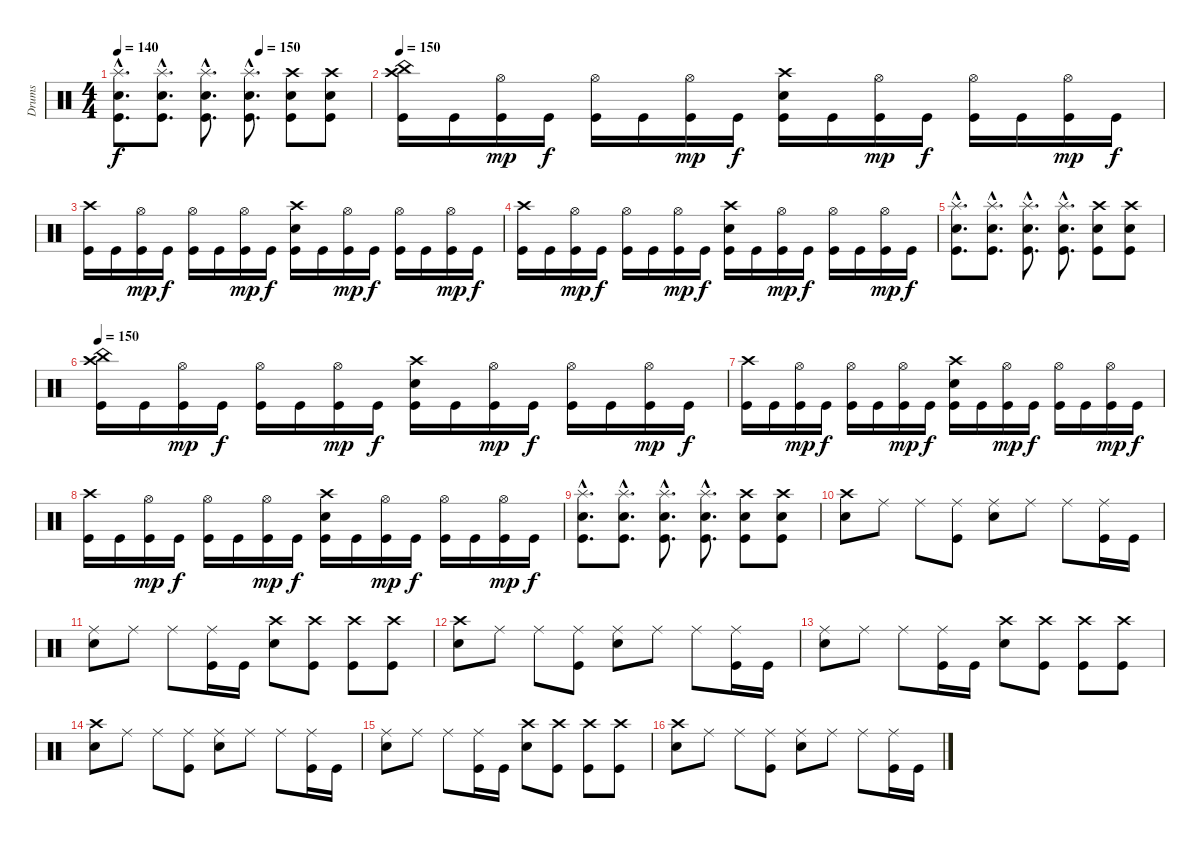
\track ("Drums" "Drums") {instrument percussion}
\staff {score}
\articulation defaults
\ts (4 4)
\tempo 140
\tempo (150 0.5625)
\clef neutral
\ks c
("Splash (hit)"{hac} "Electric Snare (hit)"{hac} "Kick (hit)"{hac}).8{d dy f} ("Splash (hit)"{hac} "Electric Snare (hit)"{hac} "Kick (hit)"{hac}).8{d} ("Splash (hit)"{hac} "Electric Snare (hit)"{hac} "Kick (hit)"{hac}).8{d} ("Splash (hit)"{hac} "Electric Snare (hit)"{hac} "Kick (hit)"{hac}).8{d} ("Crash high (hit)" "Electric Snare (hit)" "Kick (hit)").8 ("Crash high (hit)" "Electric Snare (hit)" "Kick (hit)").8 |
\tempo 150
("Crash high (hit)" "China (hit)" "Kick (hit)").16 "Kick (hit)".16 ("Hi-Hat (open)" "Kick (hit)").16{dy mp} "Kick (hit)".16{dy f} ("Hi-Hat (open)" "Kick (hit)").16 "Kick (hit)".16 ("Hi-Hat (open)" "Kick (hit)").16{dy mp} "Kick (hit)".16{dy f} ("Crash high (hit)" "Electric Snare (hit)" "Kick (hit)").16 "Kick (hit)".16 ("Hi-Hat (open)" "Kick (hit)").16{dy mp} "Kick (hit)".16{dy f} ("Hi-Hat (open)" "Kick (hit)").16 "Kick (hit)".16 ("Hi-Hat (open)" "Kick (hit)").16{dy mp} "Kick (hit)".16{dy f} |
("Crash high (hit)" "Kick (hit)").16 "Kick (hit)".16 ("Hi-Hat (open)" "Kick (hit)").16{dy mp} "Kick (hit)".16{dy f} ("Hi-Hat (open)" "Kick (hit)").16 "Kick (hit)".16 ("Hi-Hat (open)" "Kick (hit)").16{dy mp} "Kick (hit)".16{dy f} ("Crash high (hit)" "Electric Snare (hit)" "Kick (hit)").16 "Kick (hit)".16 ("Hi-Hat (open)" "Kick (hit)").16{dy mp} "Kick (hit)".16{dy f} ("Hi-Hat (open)" "Kick (hit)").16 "Kick (hit)".16 ("Hi-Hat (open)" "Kick (hit)").16{dy mp} "Kick (hit)".16{dy f} |
("Crash high (hit)" "Kick (hit)").16 "Kick (hit)".16 ("Hi-Hat (open)" "Kick (hit)").16{dy mp} "Kick (hit)".16{dy f} ("Hi-Hat (open)" "Kick (hit)").16 "Kick (hit)".16 ("Hi-Hat (open)" "Kick (hit)").16{dy mp} "Kick (hit)".16{dy f} ("Crash high (hit)" "Electric Snare (hit)" "Kick (hit)").16 "Kick (hit)".16 ("Hi-Hat (open)" "Kick (hit)").16{dy mp} "Kick (hit)".16{dy f} ("Hi-Hat (open)" "Kick (hit)").16 "Kick (hit)".16 ("Hi-Hat (open)" "Kick (hit)").16{dy mp} "Kick (hit)".16{dy f} |
("Splash (hit)"{hac} "Electric Snare (hit)"{hac} "Kick (hit)"{hac}).8{d} ("Splash (hit)"{hac} "Electric Snare (hit)"{hac} "Kick (hit)"{hac}).8{d} ("Splash (hit)"{hac} "Electric Snare (hit)"{hac} "Kick (hit)"{hac}).8{d} ("Splash (hit)"{hac} "Electric Snare (hit)"{hac} "Kick (hit)"{hac}).8{d} ("Crash high (hit)" "Electric Snare (hit)" "Kick (hit)").8 ("Crash high (hit)" "Electric Snare (hit)" "Kick (hit)").8 |
\tempo 150
("Crash high (hit)" "China (hit)" "Kick (hit)").16 "Kick (hit)".16 ("Hi-Hat (open)" "Kick (hit)").16{dy mp} "Kick (hit)".16{dy f} ("Hi-Hat (open)" "Kick (hit)").16 "Kick (hit)".16 ("Hi-Hat (open)" "Kick (hit)").16{dy mp} "Kick (hit)".16{dy f} ("Crash high (hit)" "Electric Snare (hit)" "Kick (hit)").16 "Kick (hit)".16 ("Hi-Hat (open)" "Kick (hit)").16{dy mp} "Kick (hit)".16{dy f} ("Hi-Hat (open)" "Kick (hit)").16 "Kick (hit)".16 ("Hi-Hat (open)" "Kick (hit)").16{dy mp} "Kick (hit)".16{dy f} |
("Crash high (hit)" "Kick (hit)").16 "Kick (hit)".16 ("Hi-Hat (open)" "Kick (hit)").16{dy mp} "Kick (hit)".16{dy f} ("Hi-Hat (open)" "Kick (hit)").16 "Kick (hit)".16 ("Hi-Hat (open)" "Kick (hit)").16{dy mp} "Kick (hit)".16{dy f} ("Crash high (hit)" "Electric Snare (hit)" "Kick (hit)").16 "Kick (hit)".16 ("Hi-Hat (open)" "Kick (hit)").16{dy mp} "Kick (hit)".16{dy f} ("Hi-Hat (open)" "Kick (hit)").16 "Kick (hit)".16 ("Hi-Hat (open)" "Kick (hit)").16{dy mp} "Kick (hit)".16{dy f} |
("Crash high (hit)" "Kick (hit)").16 "Kick (hit)".16 ("Hi-Hat (open)" "Kick (hit)").16{dy mp} "Kick (hit)".16{dy f} ("Hi-Hat (open)" "Kick (hit)").16 "Kick (hit)".16 ("Hi-Hat (open)" "Kick (hit)").16{dy mp} "Kick (hit)".16{dy f} ("Crash high (hit)" "Electric Snare (hit)" "Kick (hit)").16 "Kick (hit)".16 ("Hi-Hat (open)" "Kick (hit)").16{dy mp} "Kick (hit)".16{dy f} ("Hi-Hat (open)" "Kick (hit)").16 "Kick (hit)".16 ("Hi-Hat (open)" "Kick (hit)").16{dy mp} "Kick (hit)".16{dy f} |
("Splash (hit)"{hac} "Electric Snare (hit)"{hac} "Kick (hit)"{hac}).8{d} ("Splash (hit)"{hac} "Electric Snare (hit)"{hac} "Kick (hit)"{hac}).8{d} ("Splash (hit)"{hac} "Electric Snare (hit)"{hac} "Kick (hit)"{hac}).8{d} ("Splash (hit)"{hac} "Electric Snare (hit)"{hac} "Kick (hit)"{hac}).8{d} ("Crash high (hit)" "Electric Snare (hit)" "Kick (hit)").8 ("Crash high (hit)" "Electric Snare (hit)" "Kick (hit)").8 |
("Crash high (hit)" "Electric Snare (hit)").8 "Ride (middle)".8 "Ride (middle)".8 ("Ride (middle)" "Kick (hit)").8 ("Ride (middle)" "Electric Snare (hit)").8 "Ride (middle)".8 "Ride (middle)".8 ("Ride (middle)" "Kick (hit)").16 "Kick (hit)".16 |
("Ride (middle)" "Electric Snare (hit)").8 "Ride (middle)".8 "Ride (middle)".8 ("Ride (middle)" "Kick (hit)").16 "Kick (hit)".16 ("Crash high (hit)" "Electric Snare (hit)").8 ("Crash high (hit)" "Kick (hit)").8 ("Crash high (hit)" "Kick (hit)").8 ("Crash high (hit)" "Kick (hit)").8 |
("Crash high (hit)" "Electric Snare (hit)").8 "Ride (middle)".8 "Ride (middle)".8 ("Ride (middle)" "Kick (hit)").8 ("Ride (middle)" "Electric Snare (hit)").8 "Ride (middle)".8 "Ride (middle)".8 ("Ride (middle)" "Kick (hit)").16 "Kick (hit)".16 |
("Ride (middle)" "Electric Snare (hit)").8 "Ride (middle)".8 "Ride (middle)".8 ("Ride (middle)" "Kick (hit)").16 "Kick (hit)".16 ("Crash high (hit)" "Electric Snare (hit)").8 ("Crash high (hit)" "Kick (hit)").8 ("Crash high (hit)" "Kick (hit)").8 ("Crash high (hit)" "Kick (hit)").8 |
("Crash high (hit)" "Electric Snare (hit)").8 "Ride (middle)".8 "Ride (middle)".8 ("Ride (middle)" "Kick (hit)").8 ("Ride (middle)" "Electric Snare (hit)").8 "Ride (middle)".8 "Ride (middle)".8 ("Ride (middle)" "Kick (hit)").16 "Kick (hit)".16 |
("Ride (middle)" "Electric Snare (hit)").8 "Ride (middle)".8 "Ride (middle)".8 ("Ride (middle)" "Kick (hit)").16 "Kick (hit)".16 ("Crash high (hit)" "Electric Snare (hit)").8 ("Crash high (hit)" "Kick (hit)").8 ("Crash high (hit)" "Kick (hit)").8 ("Crash high (hit)" "Kick (hit)").8 |
("Crash high (hit)" "Electric Snare (hit)").8 "Ride (middle)".8 "Ride (middle)".8 ("Ride (middle)" "Kick (hit)").8 ("Ride (middle)" "Electric Snare (hit)").8 "Ride (middle)".8 "Ride (middle)".8 ("Ride (middle)" "Kick (hit)").16 "Kick (hit)".16
